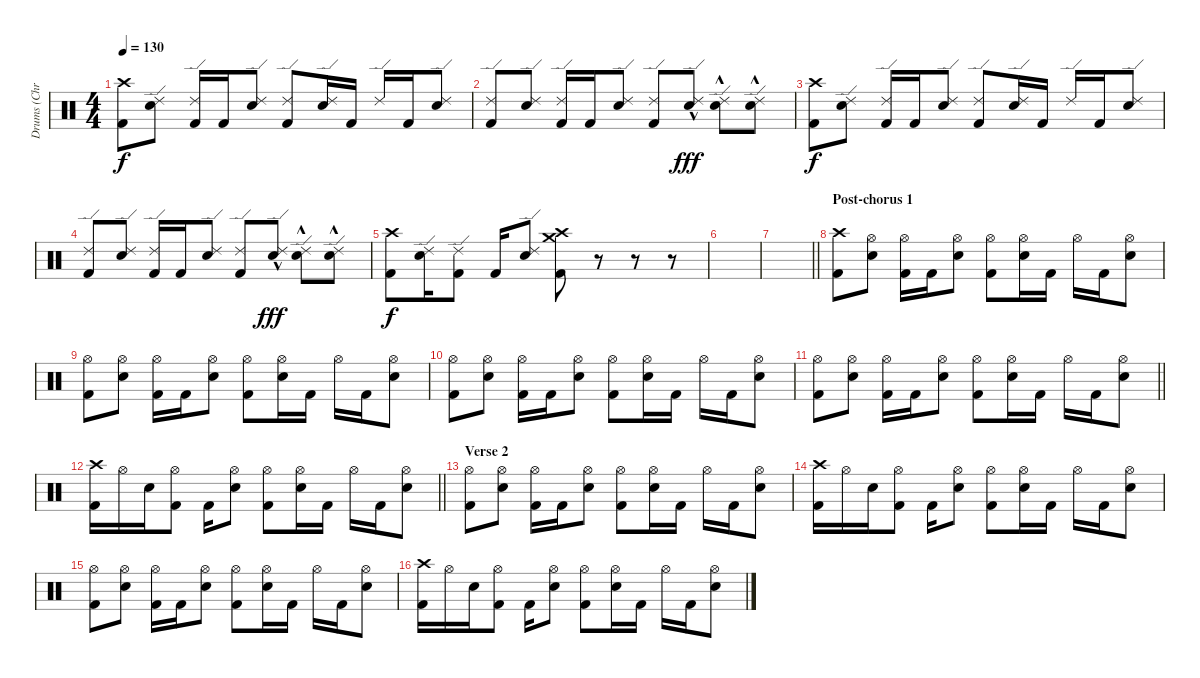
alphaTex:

\track ("Drums (Chris Greer)" "Drums (Chr") {instrument percussion}
\staff {score}
\articulation defaults
\ts (4 4)
\tempo 130
\clef neutral
\ks c
("Crash high (hit)" "Kick (hit) 2").8{dy f} ("Ride (edge) 2" "Electric Snare (hit)").8 ("Ride (edge) 2" "Kick (hit) 2").16 "Kick (hit) 2".16 ("Ride (edge) 2" "Electric Snare (hit)").8 ("Ride (edge) 2" "Kick (hit) 2").8 ("Ride (edge) 2" "Electric Snare (hit)").16 "Kick (hit) 2".16 "Ride (edge) 2".16 "Kick (hit) 2".16 ("Ride (edge) 2" "Electric Snare (hit)").8 |
("Ride (edge) 2" "Kick (hit) 2").8 ("Ride (edge) 2" "Electric Snare (hit)").8 ("Ride (edge) 2" "Kick (hit) 2").16 "Kick (hit) 2".16 ("Ride (edge) 2" "Electric Snare (hit)").8 ("Ride (edge) 2" "Kick (hit) 2").8 ("Ride (edge) 2" "Electric Snare (hit)"{hac}).8{dy fff} ("Ride (edge) 2" "Electric Snare (hit)"{hac}).8 ("Ride (edge) 2" "Electric Snare (hit)"{hac}).8 |
("Crash high (hit)" "Kick (hit) 2").8{dy f} ("Ride (edge) 2" "Electric Snare (hit)").8 ("Ride (edge) 2" "Kick (hit) 2").16 "Kick (hit) 2".16 ("Ride (edge) 2" "Electric Snare (hit)").8 ("Ride (edge) 2" "Kick (hit) 2").8 ("Ride (edge) 2" "Electric Snare (hit)").16 "Kick (hit) 2".16 "Ride (edge) 2".16 "Kick (hit) 2".16 ("Ride (edge) 2" "Electric Snare (hit)").8 |
("Ride (edge) 2" "Kick (hit) 2").8 ("Ride (edge) 2" "Electric Snare (hit)").8 ("Ride (edge) 2" "Kick (hit) 2").16 "Kick (hit) 2".16 ("Ride (edge) 2" "Electric Snare (hit)").8 ("Ride (edge) 2" "Kick (hit) 2").8 ("Ride (edge) 2" "Electric Snare (hit)"{hac}).8{dy fff} ("Ride (edge) 2" "Electric Snare (hit)"{hac}).8 ("Ride (edge) 2" "Electric Snare (hit)"{hac}).8 |
("Crash high (hit)" "Kick (hit) 2").8{dy f} ("Ride (edge) 2" "Electric Snare (hit)").16 ("Ride (edge) 2" "Kick (hit) 2").8 "Kick (hit) 2".16 ("Ride (edge) 2" "Electric Snare (hit)").8 ("Crash high (hit)" "Crash medium (hit)" "Kick (hit) 2").8 r.8 r.8 r.8 |
|
\barLineRight lightlight
|
\section ("" "Post-chorus 1")
("Crash high (hit)" "Kick (hit) 2").8 ("Hi-Hat (open)" "Electric Snare (hit)").8 ("Hi-Hat (open)" "Kick (hit) 2").16 "Kick (hit) 2".16 ("Hi-Hat (open)" "Electric Snare (hit)").8 ("Hi-Hat (open)" "Kick (hit) 2").8 ("Hi-Hat (open)" "Electric Snare (hit)").16 "Kick (hit) 2".16 "Hi-Hat (open)".16 "Kick (hit) 2".16 ("Hi-Hat (open)" "Electric Snare (hit)").8 |
("Hi-Hat (open)" "Kick (hit) 2").8 ("Hi-Hat (open)" "Electric Snare (hit)").8 ("Hi-Hat (open)" "Kick (hit) 2").16 "Kick (hit) 2".16 ("Hi-Hat (open)" "Electric Snare (hit)").8 ("Hi-Hat (open)" "Kick (hit) 2").8 ("Hi-Hat (open)" "Electric Snare (hit)").16 "Kick (hit) 2".16 "Hi-Hat (open)".16 "Kick (hit) 2".16 ("Hi-Hat (open)" "Electric Snare (hit)").8 |
("Hi-Hat (open)" "Kick (hit) 2").8 ("Hi-Hat (open)" "Electric Snare (hit)").8 ("Hi-Hat (open)" "Kick (hit) 2").16 "Kick (hit) 2".16 ("Hi-Hat (open)" "Electric Snare (hit)").8 ("Hi-Hat (open)" "Kick (hit) 2").8 ("Hi-Hat (open)" "Electric Snare (hit)").16 "Kick (hit) 2".16 "Hi-Hat (open)".16 "Kick (hit) 2".16 ("Hi-Hat (open)" "Electric Snare (hit)").8 |
\barLineRight lightlight
("Hi-Hat (open)" "Kick (hit) 2").8 ("Hi-Hat (open)" "Electric Snare (hit)").8 ("Hi-Hat (open)" "Kick (hit) 2").16 "Kick (hit) 2".16 ("Hi-Hat (open)" "Electric Snare (hit)").8 ("Hi-Hat (open)" "Kick (hit) 2").8 ("Hi-Hat (open)" "Electric Snare (hit)").16 "Kick (hit) 2".16 "Hi-Hat (open)".16 "Kick (hit) 2".16 ("Hi-Hat (open)" "Electric Snare (hit)").8 |
\barLineRight lightlight
("Crash high (hit)" "Kick (hit) 2").16 "Hi-Hat (open)".16 "Electric Snare (hit)".16 ("Hi-Hat (open)" "Kick (hit) 2").8 "Kick (hit) 2".16 ("Hi-Hat (open)" "Electric Snare (hit)").8 ("Hi-Hat (open)" "Kick (hit) 2").8 ("Hi-Hat (open)" "Electric Snare (hit)").16 "Kick (hit) 2".16 "Hi-Hat (open)".16 "Kick (hit) 2".16 ("Hi-Hat (open)" "Electric Snare (hit)").8 |
\section ("" "Verse 2")
("Hi-Hat (open)" "Kick (hit) 2").8 ("Hi-Hat (open)" "Electric Snare (hit)").8 ("Hi-Hat (open)" "Kick (hit) 2").16 "Kick (hit) 2".16 ("Hi-Hat (open)" "Electric Snare (hit)").8 ("Hi-Hat (open)" "Kick (hit) 2").8 ("Hi-Hat (open)" "Electric Snare (hit)").16 "Kick (hit) 2".16 "Hi-Hat (open)".16 "Kick (hit) 2".16 ("Hi-Hat (open)" "Electric Snare (hit)").8 |
("Crash high (hit)" "Kick (hit) 2").16 "Hi-Hat (open)".16 "Electric Snare (hit)".16 ("Hi-Hat (open)" "Kick (hit) 2").8 "Kick (hit) 2".16 ("Hi-Hat (open)" "Electric Snare (hit)").8 ("Hi-Hat (open)" "Kick (hit) 2").8 ("Hi-Hat (open)" "Electric Snare (hit)").16 "Kick (hit) 2".16 "Hi-Hat (open)".16 "Kick (hit) 2".16 ("Hi-Hat (open)" "Electric Snare (hit)").8 |
("Hi-Hat (open)" "Kick (hit) 2").8 ("Hi-Hat (open)" "Electric Snare (hit)").8 ("Hi-Hat (open)" "Kick (hit) 2").16 "Kick (hit) 2".16 ("Hi-Hat (open)" "Electric Snare (hit)").8 ("Hi-Hat (open)" "Kick (hit) 2").8 ("Hi-Hat (open)" "Electric Snare (hit)").16 "Kick (hit) 2".16 "Hi-Hat (open)".16 "Kick (hit) 2".16 ("Hi-Hat (open)" "Electric Snare (hit)").8 |
("Crash high (hit)" "Kick (hit) 2").16 "Hi-Hat (open)".16 "Electric Snare (hit)".16 ("Hi-Hat (open)" "Kick (hit) 2").8 "Kick (hit) 2".16 ("Hi-Hat (open)" "Electric Snare (hit)").8 ("Hi-Hat (open)" "Kick (hit) 2").8 ("Hi-Hat (open)" "Electric Snare (hit)").16 "Kick (hit) 2".16 "Hi-Hat (open)".16 "Kick (hit) 2".16 ("Hi-Hat (open)" "Electric Snare (hit)").8
